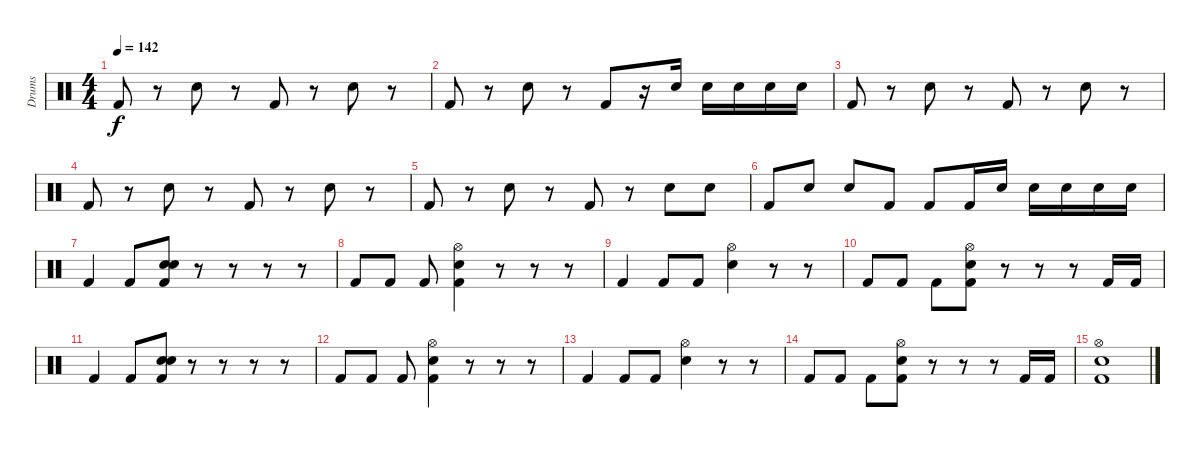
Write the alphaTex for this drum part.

\track ("Drums" "Drums") {instrument percussion}
\staff {score}
\articulation defaults
\ts (4 4)
\tempo 142
\clef neutral
\ks c "Kick (hit) 2".8{dy f}
r.8 "Snare (hit) 2".8 r.8 "Kick (hit) 2".8 r.8 "Snare (hit) 2".8 r.8 |
"Kick (hit) 2".8 r.8 "Snare (hit) 2".8 r.8 "Kick (hit) 2".8 r.16 "Snare (hit) 2".16 "Snare (hit) 2".16 "Snare (hit) 2".16 "Snare (hit) 2".16 "Snare (hit) 2".16 |
"Kick (hit) 2".8 r.8 "Snare (hit) 2".8 r.8 "Kick (hit) 2".8 r.8 "Snare (hit) 2".8 r.8 |
"Kick (hit) 2".8 r.8 "Snare (hit) 2".8 r.8 "Kick (hit) 2".8 r.8 "Snare (hit) 2".8 r.8 |
"Kick (hit) 2".8 r.8 "Snare (hit) 2".8 r.8 "Kick (hit) 2".8 r.8 "Snare (hit) 2".8 "Snare (hit) 2".8 |
"Kick (hit) 2".8 "Snare (hit) 2".8 "Snare (hit) 2".8 "Kick (hit) 2".8 "Kick (hit) 2".8 "Kick (hit) 2".16 "Snare (hit) 2".16 "Snare (hit) 2".16 "Snare (hit) 2".16 "Snare (hit) 2".16 "Snare (hit) 2".16 |
"Kick (hit) 2".4 "Kick (hit) 2".8 ("Hand Clap (hit)" "Snare (hit) 2" "Kick (hit) 2").8 r.8 r.8 r.8 r.8 |
"Kick (hit) 2".8 "Kick (hit) 2".8 "Kick (hit) 2".8 ("Hi-Hat (open)" "Snare (hit) 2" "Kick (hit) 2").4 r.8 r.8 r.8 |
"Kick (hit) 2".4 "Kick (hit) 2".8 "Kick (hit) 2".8 ("Hi-Hat (open)" "Snare (hit) 2").4 r.8 r.8 |
"Kick (hit) 2".8 "Kick (hit) 2".8 "Kick (hit) 2".8 ("Hi-Hat (open)" "Snare (hit) 2" "Kick (hit) 2").8 r.8 r.8 r.8 "Kick (hit) 2".16 "Kick (hit) 2".16 |
"Kick (hit) 2".4 "Kick (hit) 2".8 ("Hand Clap (hit)" "Snare (hit) 2" "Kick (hit) 2").8 r.8 r.8 r.8 r.8 |
"Kick (hit) 2".8 "Kick (hit) 2".8 "Kick (hit) 2".8 ("Hi-Hat (open)" "Snare (hit) 2" "Kick (hit) 2").4 r.8 r.8 r.8 |
"Kick (hit) 2".4 "Kick (hit) 2".8 "Kick (hit) 2".8 ("Hi-Hat (open)" "Snare (hit) 2").4 r.8 r.8 |
"Kick (hit) 2".8 "Kick (hit) 2".8 "Kick (hit) 2".8 ("Hi-Hat (open)" "Snare (hit) 2" "Kick (hit) 2").8 r.8 r.8 r.8 "Kick (hit) 2".16 "Kick (hit) 2".16 |
("Hi-Hat (open)" "Snare (hit) 2" "Kick (hit) 2").1
